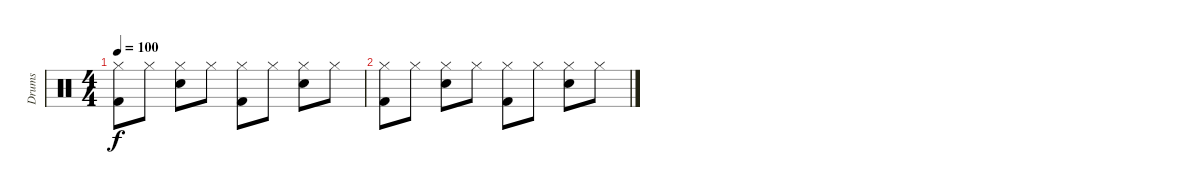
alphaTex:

\track ("Drums" "Drums") {instrument percussion}
\staff {score}
\articulation defaults
\ts (4 4)
\tempo 100
\clef neutral
\ks c
("Hi-Hat (closed)" "Kick (hit) 2").8{dy f} "Hi-Hat (closed)".8 ("Hi-Hat (closed)" "Electric Snare (hit)").8 "Hi-Hat (closed)".8 ("Hi-Hat (closed)" "Kick (hit) 2").8 "Hi-Hat (closed)".8 ("Hi-Hat (closed)" "Electric Snare (hit)").8 "Hi-Hat (closed)".8 |
("Hi-Hat (closed)" "Kick (hit) 2").8 "Hi-Hat (closed)".8 ("Hi-Hat (closed)" "Electric Snare (hit)").8 "Hi-Hat (closed)".8 ("Hi-Hat (closed)" "Kick (hit) 2").8 "Hi-Hat (closed)".8 ("Hi-Hat (closed)" "Electric Snare (hit)").8 "Hi-Hat (closed)".8
